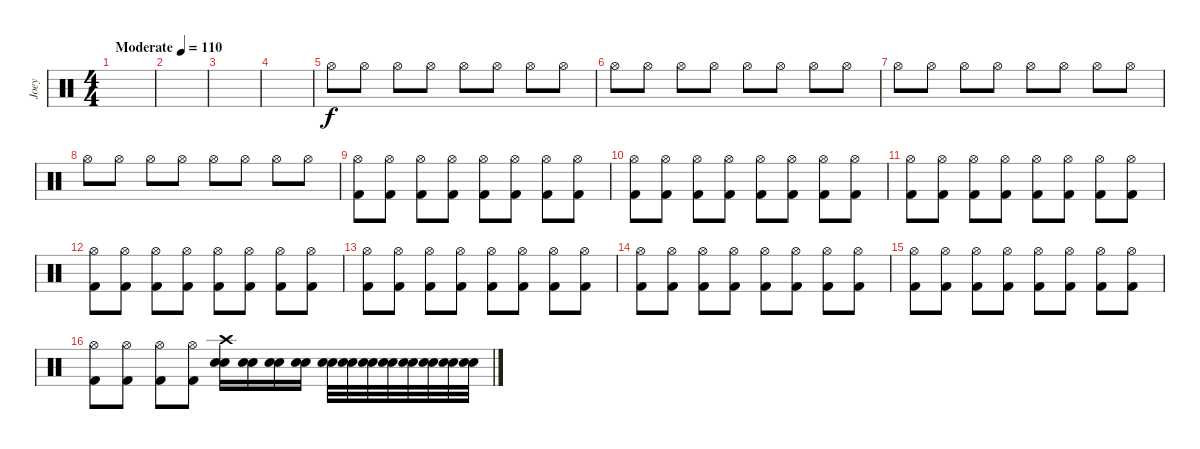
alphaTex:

\track ("Joey" "Joey") {instrument percussion}
\staff {score}
\articulation defaults
\ts (4 4)
\tempo (110 "Moderate")
\clef neutral
\ks c
|
|
|
|
"Hi-Hat (open)".8 "Hi-Hat (open)".8 "Hi-Hat (open)".8 "Hi-Hat (open)".8 "Hi-Hat (open)".8 "Hi-Hat (open)".8 "Hi-Hat (open)".8 "Hi-Hat (open)".8 |
"Hi-Hat (open)".8 "Hi-Hat (open)".8 "Hi-Hat (open)".8 "Hi-Hat (open)".8 "Hi-Hat (open)".8 "Hi-Hat (open)".8 "Hi-Hat (open)".8 "Hi-Hat (open)".8 |
"Hi-Hat (open)".8 "Hi-Hat (open)".8 "Hi-Hat (open)".8 "Hi-Hat (open)".8 "Hi-Hat (open)".8 "Hi-Hat (open)".8 "Hi-Hat (open)".8 "Hi-Hat (open)".8 |
"Hi-Hat (open)".8 "Hi-Hat (open)".8 "Hi-Hat (open)".8 "Hi-Hat (open)".8 "Hi-Hat (open)".8 "Hi-Hat (open)".8 "Hi-Hat (open)".8 "Hi-Hat (open)".8 |
("Hi-Hat (open)" "Kick (hit) 2").8 ("Hi-Hat (open)" "Kick (hit) 2").8 ("Hi-Hat (open)" "Kick (hit) 2").8 ("Hi-Hat (open)" "Kick (hit) 2").8 ("Hi-Hat (open)" "Kick (hit) 2").8 ("Hi-Hat (open)" "Kick (hit) 2").8 ("Hi-Hat (open)" "Kick (hit) 2").8 ("Hi-Hat (open)" "Kick (hit) 2").8 |
("Hi-Hat (open)" "Kick (hit) 2").8 ("Hi-Hat (open)" "Kick (hit) 2").8 ("Hi-Hat (open)" "Kick (hit) 2").8 ("Hi-Hat (open)" "Kick (hit) 2").8 ("Hi-Hat (open)" "Kick (hit) 2").8 ("Hi-Hat (open)" "Kick (hit) 2").8 ("Hi-Hat (open)" "Kick (hit) 2").8 ("Hi-Hat (open)" "Kick (hit) 2").8 |
("Hi-Hat (open)" "Kick (hit) 2").8 ("Hi-Hat (open)" "Kick (hit) 2").8 ("Hi-Hat (open)" "Kick (hit) 2").8 ("Hi-Hat (open)" "Kick (hit) 2").8 ("Hi-Hat (open)" "Kick (hit) 2").8 ("Hi-Hat (open)" "Kick (hit) 2").8 ("Hi-Hat (open)" "Kick (hit) 2").8 ("Hi-Hat (open)" "Kick (hit) 2").8 |
("Hi-Hat (open)" "Kick (hit) 2").8 ("Hi-Hat (open)" "Kick (hit) 2").8 ("Hi-Hat (open)" "Kick (hit) 2").8 ("Hi-Hat (open)" "Kick (hit) 2").8 ("Hi-Hat (open)" "Kick (hit) 2").8 ("Hi-Hat (open)" "Kick (hit) 2").8 ("Hi-Hat (open)" "Kick (hit) 2").8 ("Hi-Hat (open)" "Kick (hit) 2").8 |
("Hi-Hat (open)" "Kick (hit) 2").8 ("Hi-Hat (open)" "Kick (hit) 2").8 ("Hi-Hat (open)" "Kick (hit) 2").8 ("Hi-Hat (open)" "Kick (hit) 2").8 ("Hi-Hat (open)" "Kick (hit) 2").8 ("Hi-Hat (open)" "Kick (hit) 2").8 ("Hi-Hat (open)" "Kick (hit) 2").8 ("Hi-Hat (open)" "Kick (hit) 2").8 |
("Hi-Hat (open)" "Kick (hit) 2").8 ("Hi-Hat (open)" "Kick (hit) 2").8 ("Hi-Hat (open)" "Kick (hit) 2").8 ("Hi-Hat (open)" "Kick (hit) 2").8 ("Hi-Hat (open)" "Kick (hit) 2").8 ("Hi-Hat (open)" "Kick (hit) 2").8 ("Hi-Hat (open)" "Kick (hit) 2").8 ("Hi-Hat (open)" "Kick (hit) 2").8 |
("Hi-Hat (open)" "Kick (hit) 2").8 ("Hi-Hat (open)" "Kick (hit) 2").8 ("Hi-Hat (open)" "Kick (hit) 2").8 ("Hi-Hat (open)" "Kick (hit) 2").8 ("Hi-Hat (open)" "Kick (hit) 2").8 ("Hi-Hat (open)" "Kick (hit) 2").8 ("Hi-Hat (open)" "Kick (hit) 2").8 ("Hi-Hat (open)" "Kick (hit) 2").8 |
("Hi-Hat (open)" "Kick (hit) 2").8 ("Hi-Hat (open)" "Kick (hit) 2").8 ("Hi-Hat (open)" "Kick (hit) 2").8 ("Hi-Hat (open)" "Kick (hit) 2").8 ("Crash high (hit)" "Electric Snare (hit)" "Snare (hit) 2").16 ("Electric Snare (hit)" "Snare (hit) 2").16 ("Electric Snare (hit)" "Snare (hit) 2").16 ("Electric Snare (hit)" "Snare (hit) 2").16 ("Electric Snare (hit)" "Snare (hit) 2").32 ("Electric Snare (hit)" "Snare (hit) 2").32 ("Electric Snare (hit)" "Snare (hit) 2").32 ("Electric Snare (hit)" "Snare (hit) 2").32 ("Electric Snare (hit)" "Snare (hit) 2").32 ("Electric Snare (hit)" "Snare (hit) 2").32 ("Electric Snare (hit)" "Snare (hit) 2").32 ("Electric Snare (hit)" "Snare (hit) 2").32
